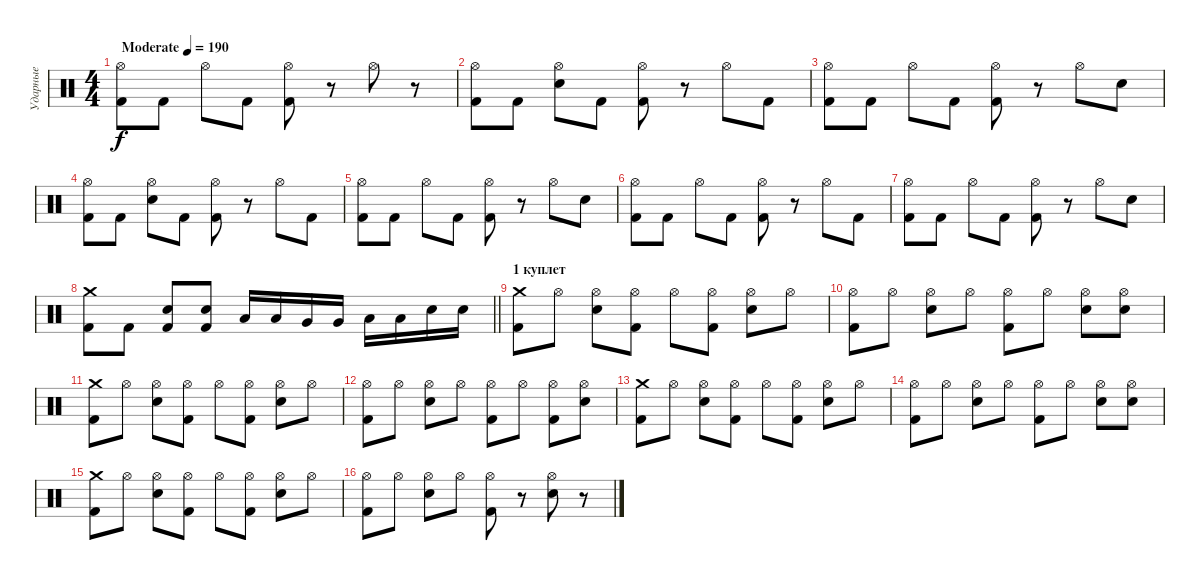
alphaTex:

\track ("Ударные" "Ударные") {instrument percussion}
\staff {score}
\articulation defaults
\ts (4 4)
\tempo (190 "Moderate")
\clef neutral
\ks c
("Hi-Hat (open)" "Kick (hit) 2").8{dy f} "Kick (hit) 2".8 "Hi-Hat (open)".8 "Kick (hit) 2".8 ("Hi-Hat (open)" "Kick (hit) 2").8 r.8 "Hi-Hat (open)".8 r.8 |
("Hi-Hat (open)" "Kick (hit) 2").8 "Kick (hit) 2".8 ("Hi-Hat (open)" "Electric Snare (hit)").8 "Kick (hit) 2".8 ("Hi-Hat (open)" "Kick (hit) 2").8 r.8 "Hi-Hat (open)".8 "Kick (hit) 2".8 |
("Hi-Hat (open)" "Kick (hit) 2").8 "Kick (hit) 2".8 "Hi-Hat (open)".8 "Kick (hit) 2".8 ("Hi-Hat (open)" "Kick (hit) 2").8 r.8 "Hi-Hat (open)".8 "Electric Snare (hit)".8 |
("Hi-Hat (open)" "Kick (hit) 2").8 "Kick (hit) 2".8 ("Hi-Hat (open)" "Electric Snare (hit)").8 "Kick (hit) 2".8 ("Hi-Hat (open)" "Kick (hit) 2").8 r.8 "Hi-Hat (open)".8 "Kick (hit) 2".8 |
("Hi-Hat (open)" "Kick (hit) 2").8 "Kick (hit) 2".8 "Hi-Hat (open)".8 "Kick (hit) 2".8 ("Hi-Hat (open)" "Kick (hit) 2").8 r.8 "Hi-Hat (open)".8 "Electric Snare (hit)".8 |
("Hi-Hat (open)" "Kick (hit) 2").8 "Kick (hit) 2".8 "Hi-Hat (open)".8 "Kick (hit) 2".8 ("Hi-Hat (open)" "Kick (hit) 2").8 r.8 "Hi-Hat (open)".8 "Kick (hit) 2".8 |
("Hi-Hat (open)" "Kick (hit) 2").8 "Kick (hit) 2".8 "Hi-Hat (open)".8 "Kick (hit) 2".8 ("Hi-Hat (open)" "Kick (hit) 2").8 r.8 "Hi-Hat (open)".8 "Electric Snare (hit)".8 |
\barLineRight lightlight
("Crash medium (hit)" "Kick (hit) 2").8 "Kick (hit) 2".8 ("Electric Snare (hit)" "Kick (hit) 2").8 ("Electric Snare (hit)" "Kick (hit) 2").8 "Low Tom (hit)".16 "Low Tom (hit)".16 "Very Low Tom (hit)".16 "Very Low Tom (hit)".16 "Low Floor Tom (hit)".16 "Low Floor Tom (hit)".16 "Electric Snare (hit)".16 "Electric Snare (hit)".16 |
\section ("" "1 куплет")
("Crash medium (hit)" "Kick (hit) 2").8 "Hi-Hat (open)".8 ("Hi-Hat (open)" "Electric Snare (hit)").8 ("Hi-Hat (open)" "Kick (hit) 2").8 "Hi-Hat (open)".8 ("Hi-Hat (open)" "Kick (hit) 2").8 ("Hi-Hat (open)" "Electric Snare (hit)").8 "Hi-Hat (open)".8 |
("Hi-Hat (open)" "Kick (hit) 2").8 "Hi-Hat (open)".8 ("Hi-Hat (open)" "Electric Snare (hit)").8 "Hi-Hat (open)".8 ("Hi-Hat (open)" "Kick (hit) 2").8 "Hi-Hat (open)".8 ("Hi-Hat (open)" "Electric Snare (hit)").8 ("Hi-Hat (open)" "Electric Snare (hit)").8 |
("Crash medium (hit)" "Kick (hit) 2").8 "Hi-Hat (open)".8 ("Hi-Hat (open)" "Electric Snare (hit)").8 ("Hi-Hat (open)" "Kick (hit) 2").8 "Hi-Hat (open)".8 ("Hi-Hat (open)" "Kick (hit) 2").8 ("Hi-Hat (open)" "Electric Snare (hit)").8 "Hi-Hat (open)".8 |
("Hi-Hat (open)" "Kick (hit) 2").8 "Hi-Hat (open)".8 ("Hi-Hat (open)" "Electric Snare (hit)").8 "Hi-Hat (open)".8 ("Hi-Hat (open)" "Kick (hit) 2").8 "Hi-Hat (open)".8 ("Hi-Hat (open)" "Kick (hit) 2").8 ("Hi-Hat (open)" "Electric Snare (hit)").8 |
("Crash medium (hit)" "Kick (hit) 2").8 "Hi-Hat (open)".8 ("Hi-Hat (open)" "Electric Snare (hit)").8 ("Hi-Hat (open)" "Kick (hit) 2").8 "Hi-Hat (open)".8 ("Hi-Hat (open)" "Kick (hit) 2").8 ("Hi-Hat (open)" "Electric Snare (hit)").8 "Hi-Hat (open)".8 |
("Hi-Hat (open)" "Kick (hit) 2").8 "Hi-Hat (open)".8 ("Hi-Hat (open)" "Electric Snare (hit)").8 "Hi-Hat (open)".8 ("Hi-Hat (open)" "Kick (hit) 2").8 "Hi-Hat (open)".8 ("Hi-Hat (open)" "Electric Snare (hit)").8 ("Hi-Hat (open)" "Electric Snare (hit)").8 |
("Crash medium (hit)" "Kick (hit) 2").8 "Hi-Hat (open)".8 ("Hi-Hat (open)" "Electric Snare (hit)").8 ("Hi-Hat (open)" "Kick (hit) 2").8 "Hi-Hat (open)".8 ("Hi-Hat (open)" "Kick (hit) 2").8 ("Hi-Hat (open)" "Electric Snare (hit)").8 "Hi-Hat (open)".8 |
("Hi-Hat (open)" "Kick (hit) 2").8 "Hi-Hat (open)".8 ("Hi-Hat (open)" "Electric Snare (hit)").8 "Hi-Hat (open)".8 ("Hi-Hat (open)" "Kick (hit) 2").8 r.8 ("Hi-Hat (open)" "Electric Snare (hit)").8 r.8
